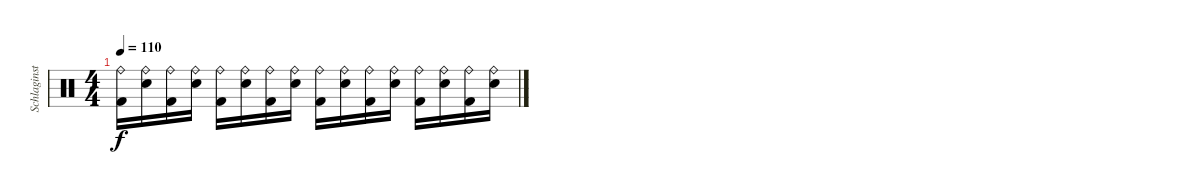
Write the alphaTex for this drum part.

\track ("Schlaginstrumente - Auswahl" "Schlaginst") {instrument percussion}
\staff {score}
\articulation defaults
\ts (4 4)
\tempo 110
\clef neutral
\ks c
("Ride (bell)" "Kick (hit) 2").16{dy f} ("Ride (bell)" "Snare (hit) 2").16 ("Ride (bell)" "Kick (hit) 2").16 ("Ride (bell)" "Snare (hit) 2").16 ("Ride (bell)" "Kick (hit) 2").16 ("Ride (bell)" "Snare (hit) 2").16 ("Ride (bell)" "Kick (hit) 2").16 ("Ride (bell)" "Snare (hit) 2").16 ("Ride (bell)" "Kick (hit) 2").16 ("Ride (bell)" "Snare (hit) 2").16 ("Ride (bell)" "Kick (hit) 2").16 ("Ride (bell)" "Snare (hit) 2").16 ("Ride (bell)" "Kick (hit) 2").16 ("Ride (bell)" "Snare (hit) 2").16 ("Ride (bell)" "Kick (hit) 2").16 ("Ride (bell)" "Snare (hit) 2").16
